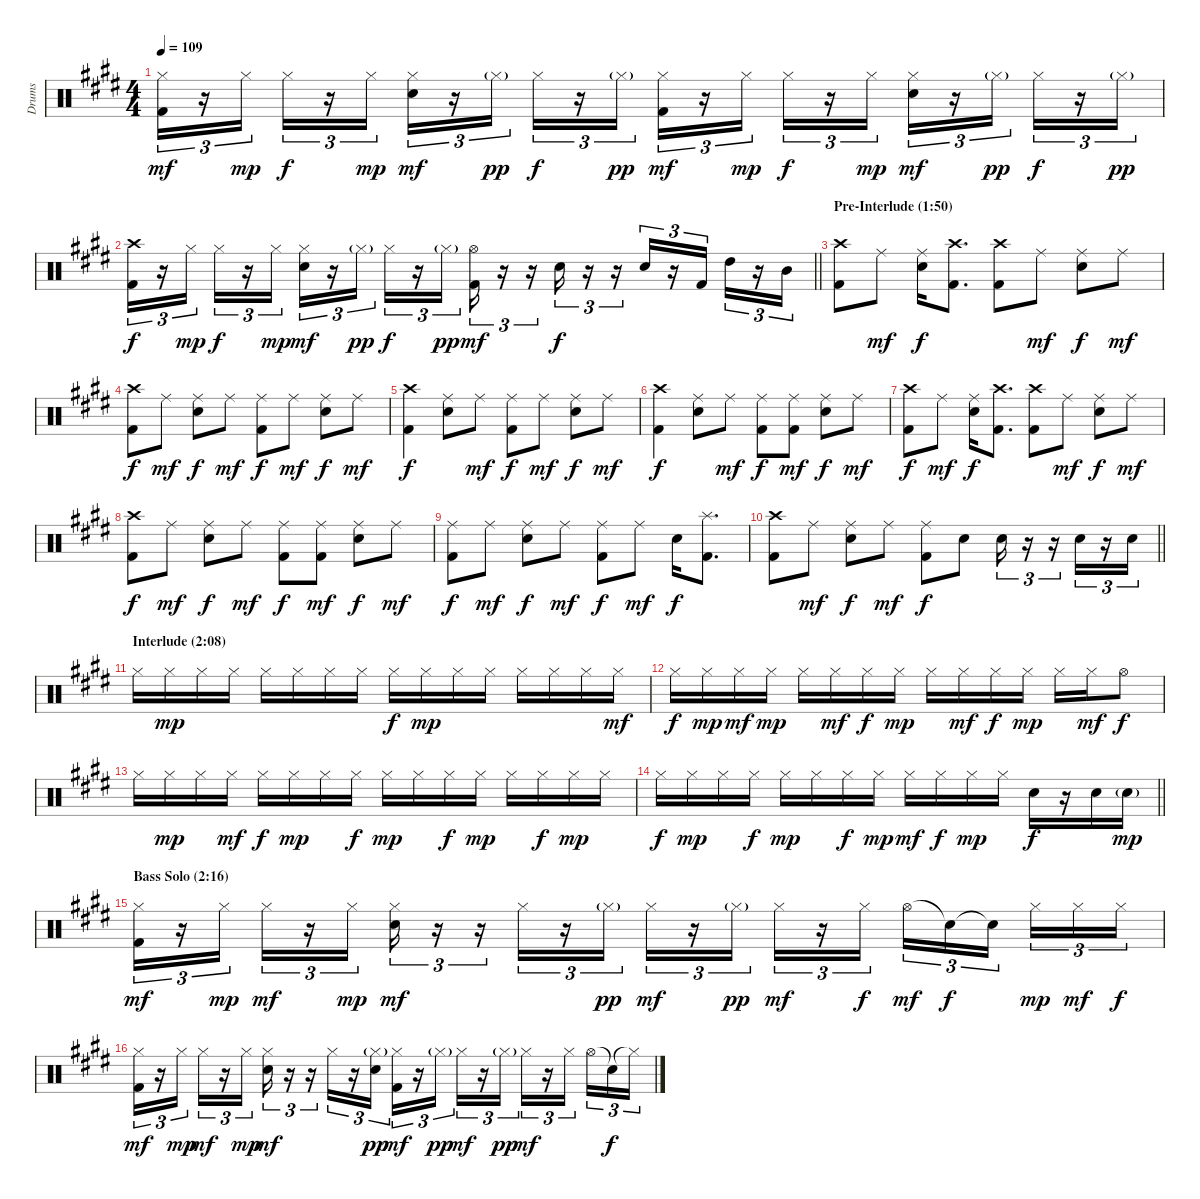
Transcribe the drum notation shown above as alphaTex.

\track ("Drums" "Drums") {instrument percussion}
\staff {score}
\articulation defaults
\ts (4 4)
\tempo 109
\clef neutral
\ks e
("Hi-Hat (closed)" "Kick (hit) 2").16{tu (3 2) dy mf} r.16{tu (3 2)} "Hi-Hat (closed)".16{tu (3 2) dy mp} "Hi-Hat (closed)".16{tu (3 2) dy f} r.16{tu (3 2)} "Hi-Hat (closed)".16{tu (3 2) dy mp} ("Hi-Hat (closed)" "Electric Snare (hit)").16{tu (3 2) dy mf} r.16{tu (3 2)} "Hi-Hat (closed)"{g}.16{tu (3 2) dy pp} "Hi-Hat (closed)".16{tu (3 2) dy f} r.16{tu (3 2)} "Hi-Hat (closed)"{g}.16{tu (3 2) dy pp} ("Hi-Hat (closed)" "Kick (hit) 2").16{tu (3 2) dy mf} r.16{tu (3 2)} "Hi-Hat (closed)".16{tu (3 2) dy mp} "Hi-Hat (closed)".16{tu (3 2) dy f} r.16{tu (3 2)} "Hi-Hat (closed)".16{tu (3 2) dy mp} ("Hi-Hat (closed)" "Electric Snare (hit)").16{tu (3 2) dy mf} r.16{tu (3 2)} "Hi-Hat (closed)"{g}.16{tu (3 2) dy pp} "Hi-Hat (closed)".16{tu (3 2) dy f} r.16{tu (3 2)} "Hi-Hat (closed)"{g}.16{tu (3 2) dy pp} |
\barLineRight lightlight
("Crash high (hit)" "Kick (hit) 2").16{tu (3 2) dy f} r.16{tu (3 2)} "Hi-Hat (closed)".16{tu (3 2) dy mp} "Hi-Hat (closed)".16{tu (3 2) dy f} r.16{tu (3 2)} "Hi-Hat (closed)".16{tu (3 2) dy mp} ("Hi-Hat (closed)" "Electric Snare (hit)").16{tu (3 2) dy mf} r.16{tu (3 2)} "Hi-Hat (closed)"{g}.16{tu (3 2) dy pp} "Hi-Hat (closed)".16{tu (3 2) dy f} r.16{tu (3 2)} "Hi-Hat (closed)"{g}.16{tu (3 2) dy pp} ("Hi-Hat (open)" "Kick (hit) 2").16{tu (3 2) dy mf} r.16{tu (3 2)} r.16{tu (3 2)} "Electric Snare (hit)".16{tu (3 2) dy f} r.16{tu (3 2)} r.16{tu (3 2)} "Electric Snare (hit)".16{tu (3 2)} r.16{tu (3 2)} "Kick (hit) 2".16{tu (3 2)} "High Tom (hit)".16{tu (3 2)} r.16{tu (3 2)} "Mid Tom (hit)".16{tu (3 2)} |
\section ("" "Pre-Interlude (1:50)")
("Crash high (hit)" "Kick (hit) 2").8 "Ride (middle)".8{dy mf} ("Ride (middle)" "Electric Snare (hit)").16{dy f} ("Crash high (hit)" "Kick (hit) 2").8{d} ("Crash high (hit)" "Kick (hit) 2").8 "Ride (middle)".8{dy mf} ("Ride (middle)" "Electric Snare (hit)").8{dy f} "Ride (middle)".8{dy mf} |
("Crash high (hit)" "Kick (hit) 2").8{dy f} "Ride (middle)".8{dy mf} ("Ride (middle)" "Electric Snare (hit)").8{dy f} "Ride (middle)".8{dy mf} ("Ride (middle)" "Kick (hit) 2").8{dy f} "Ride (middle)".8{dy mf} ("Ride (middle)" "Electric Snare (hit)").8{dy f} "Ride (middle)".8{dy mf} |
("Crash high (hit)" "Kick (hit) 2").4{dy f} ("Ride (middle)" "Electric Snare (hit)").8 "Ride (middle)".8{dy mf} ("Ride (middle)" "Kick (hit) 2").8{dy f} "Ride (middle)".8{dy mf} ("Ride (middle)" "Electric Snare (hit)").8{dy f} "Ride (middle)".8{dy mf} |
("Crash high (hit)" "Kick (hit) 2").4{dy f} ("Ride (middle)" "Electric Snare (hit)").8 "Ride (middle)".8{dy mf} ("Ride (middle)" "Kick (hit) 2").8{dy f} ("Ride (middle)" "Kick (hit) 2").8{dy mf} ("Ride (middle)" "Electric Snare (hit)").8{dy f} "Ride (middle)".8{dy mf} |
("Crash high (hit)" "Kick (hit) 2").8{dy f} "Ride (middle)".8{dy mf} ("Ride (middle)" "Electric Snare (hit)").16{dy f} ("Crash high (hit)" "Kick (hit) 2").8{d} ("Crash high (hit)" "Kick (hit) 2").8 "Ride (middle)".8{dy mf} ("Ride (middle)" "Electric Snare (hit)").8{dy f} "Ride (middle)".8{dy mf} |
("Crash high (hit)" "Kick (hit) 2").8{dy f} "Ride (middle)".8{dy mf} ("Ride (middle)" "Electric Snare (hit)").8{dy f} "Ride (middle)".8{dy mf} ("Ride (middle)" "Kick (hit) 2").8{dy f} ("Ride (middle)" "Kick (hit) 2").8{dy mf} ("Ride (middle)" "Electric Snare (hit)").8{dy f} "Ride (middle)".8{dy mf} |
("Ride (middle)" "Kick (hit) 2").8{dy f} "Ride (middle)".8{dy mf} ("Ride (middle)" "Electric Snare (hit)").8{dy f} "Ride (middle)".8{dy mf} ("Ride (middle)" "Kick (hit) 2").8{dy f} "Ride (middle)".8{dy mf} "Electric Snare (hit)".16{dy f} ("Splash (hit)" "Kick (hit) 2").8{d} |
\barLineRight lightlight
("Crash high (hit)" "Kick (hit) 2").8 "Ride (middle)".8{dy mf} ("Ride (middle)" "Electric Snare (hit)").8{dy f} "Ride (middle)".8{dy mf} ("Ride (middle)" "Kick (hit) 2").8{dy f} "Electric Snare (hit)".8 "Electric Snare (hit)".16{tu (3 2)} r.16{tu (3 2)} r.16{tu (3 2)} "Electric Snare (hit)".16{tu (3 2)} r.16{tu (3 2)} "Electric Snare (hit)".16{tu (3 2)} |
\section ("" "Interlude (2:08)")
"Hi-Hat (closed)".16 "Hi-Hat (closed)".16{dy mp} "Hi-Hat (closed)".16 "Hi-Hat (closed)".16 "Hi-Hat (closed)".16 "Hi-Hat (closed)".16 "Hi-Hat (closed)".16 "Hi-Hat (closed)".16 "Hi-Hat (closed)".16{dy f} "Hi-Hat (closed)".16{dy mp} "Hi-Hat (closed)".16 "Hi-Hat (closed)".16 "Hi-Hat (closed)".16 "Hi-Hat (closed)".16 "Hi-Hat (closed)".16 "Hi-Hat (closed)".16{dy mf} |
"Hi-Hat (closed)".16{dy f} "Hi-Hat (closed)".16{dy mp} "Hi-Hat (closed)".16{dy mf} "Hi-Hat (closed)".16{dy mp} "Hi-Hat (closed)".16 "Hi-Hat (closed)".16{dy mf} "Hi-Hat (closed)".16{dy f} "Hi-Hat (closed)".16{dy mp} "Hi-Hat (closed)".16 "Hi-Hat (closed)".16{dy mf} "Hi-Hat (closed)".16{dy f} "Hi-Hat (closed)".16{dy mp} "Hi-Hat (closed)".16 "Hi-Hat (closed)".16{dy mf} "Hi-Hat (open)".8{dy f} |
"Hi-Hat (closed)".16 "Hi-Hat (closed)".16{dy mp} "Hi-Hat (closed)".16 "Hi-Hat (closed)".16{dy mf} "Hi-Hat (closed)".16{dy f} "Hi-Hat (closed)".16{dy mp} "Hi-Hat (closed)".16 "Hi-Hat (closed)".16{dy f} "Hi-Hat (closed)".16{dy mp} "Hi-Hat (closed)".16 "Hi-Hat (closed)".16{dy f} "Hi-Hat (closed)".16{dy mp} "Hi-Hat (closed)".16 "Hi-Hat (closed)".16{dy f} "Hi-Hat (closed)".16{dy mp} "Hi-Hat (closed)".16 |
\barLineRight lightlight "Hi-Hat (closed)".16{dy f} "Hi-Hat (closed)".16{dy mp} "Hi-Hat (closed)".16 "Hi-Hat (closed)".16{dy f} "Hi-Hat (closed)".16{dy mp} "Hi-Hat (closed)".16 "Hi-Hat (closed)".16{dy f} "Hi-Hat (closed)".16{dy mp} "Hi-Hat (closed)".16{dy mf} "Hi-Hat (closed)".16{dy f} "Hi-Hat (closed)".16{dy mp} "Hi-Hat (closed)".16 "Electric Snare (hit)".16{dy f}
r.16 "Electric Snare (hit)".16 "Electric Snare (hit)"{g}.16{dy mp} |
\section ("" "Bass Solo (2:16)")
("Hi-Hat (closed)" "Kick (hit) 2").16{tu (3 2) dy mf} r.16{tu (3 2)} "Hi-Hat (closed)".16{tu (3 2) dy mp} "Hi-Hat (closed)".16{tu (3 2) dy mf} r.16{tu (3 2)} "Hi-Hat (closed)".16{tu (3 2) dy mp} ("Hi-Hat (closed)" "Electric Snare (hit)").16{tu (3 2) dy mf} r.16{tu (3 2)} r.16{tu (3 2)} "Hi-Hat (closed)".16{tu (3 2)} r.16{tu (3 2)} "Hi-Hat (closed)"{g}.16{tu (3 2) dy pp} "Hi-Hat (closed)".16{tu (3 2) dy mf} r.16{tu (3 2)} "Hi-Hat (closed)"{g}.16{tu (3 2) dy pp} "Hi-Hat (closed)".16{tu (3 2) dy mf} r.16{tu (3 2)} "Hi-Hat (closed)".16{tu (3 2) dy f} "Hi-Hat (open)".16{tu (3 2) dy mf} "Snare (hit)"{t}.16{tu (3 2) dy f} "Snare (hit)"{t}.16{tu (3 2) beam splitsecondary} "Hi-Hat (closed)".16{tu (3 2) dy mp} "Hi-Hat (closed)".16{tu (3 2) dy mf} "Hi-Hat (closed)".16{tu (3 2) dy f} |
("Hi-Hat (closed)" "Kick (hit) 2").16{tu (3 2) dy mf} r.16{tu (3 2)} "Hi-Hat (closed)".16{tu (3 2) dy mp} "Hi-Hat (closed)".16{tu (3 2) dy mf} r.16{tu (3 2)} "Hi-Hat (closed)".16{tu (3 2) dy mp} ("Hi-Hat (closed)" "Electric Snare (hit)").16{tu (3 2) dy mf} r.16{tu (3 2)} r.16{tu (3 2)} "Hi-Hat (closed)".16{tu (3 2)} r.16{tu (3 2)} ("Hi-Hat (closed)"{g} "Electric Snare (hit)").16{tu (3 2) dy pp} ("Hi-Hat (closed)" "Kick (hit) 2").16{tu (3 2) dy mf} r.16{tu (3 2)} "Hi-Hat (closed)"{g}.16{tu (3 2) dy pp} "Hi-Hat (closed)".16{tu (3 2) dy mf} r.16{tu (3 2)} "Hi-Hat (closed)"{g}.16{tu (3 2) dy pp} "Hi-Hat (closed)".16{tu (3 2) dy mf} r.16{tu (3 2)} "Hi-Hat (closed)".16{tu (3 2) beam splitsecondary} "Hi-Hat (open)".16{tu (3 2)} "Snare (hit)"{t}.16{tu (3 2) dy f} "Hi-Hat (closed)"{t}.16{tu (3 2)}
